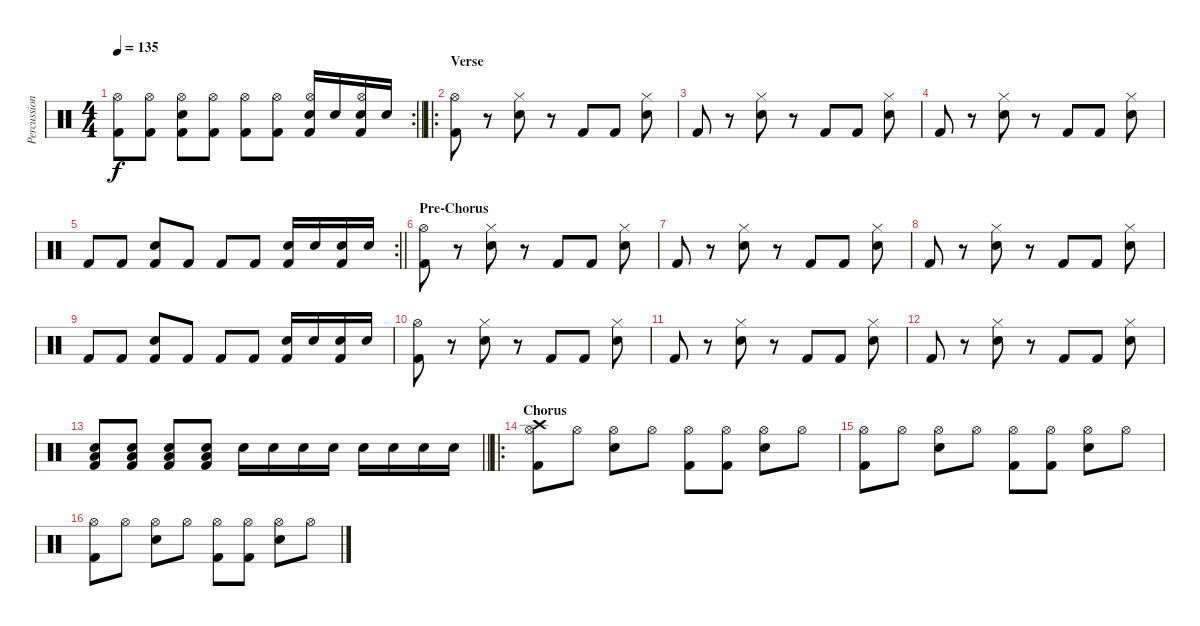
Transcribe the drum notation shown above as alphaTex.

\track ("Percussion" "Percussion") {instrument percussion}
\staff {score}
\articulation defaults
\rc 2
\ts (4 4)
\tempo 135
\clef neutral
\barLineRight lightlight
\ks c
("Kick (hit) 2" "Hi-Hat (open)").8{dy f} ("Kick (hit) 2" "Hi-Hat (open)").8 ("Kick (hit) 2" "Electric Snare (hit)" "Hi-Hat (open)").8 ("Kick (hit) 2" "Hi-Hat (open)").8 ("Kick (hit) 2" "Hi-Hat (open)").8 ("Kick (hit) 2" "Hi-Hat (open)").8 ("Kick (hit) 2" "Electric Snare (hit)" "Hi-Hat (open)").16 "Electric Snare (hit)".16 ("Kick (hit) 2" "Electric Snare (hit)" "Hi-Hat (open)").16 "Electric Snare (hit)".16 |
\ro
\section ("" "Verse")
("Hi-Hat (open)" "Kick (hit) 2").8 r.8 ("Electric Snare (hit)" "Hi-Hat (closed)").8 r.8 "Kick (hit) 2".8 "Kick (hit) 2".8 ("Electric Snare (hit)" "Hi-Hat (closed)").8 |
"Kick (hit) 2".8 r.8 ("Electric Snare (hit)" "Hi-Hat (closed)").8 r.8 "Kick (hit) 2".8 "Kick (hit) 2".8 ("Electric Snare (hit)" "Hi-Hat (closed)").8 |
"Kick (hit) 2".8 r.8 ("Electric Snare (hit)" "Hi-Hat (closed)").8 r.8 "Kick (hit) 2".8 "Kick (hit) 2".8 ("Electric Snare (hit)" "Hi-Hat (closed)").8 |
\rc 2
\barLineRight lightlight "Kick (hit) 2".8 "Kick (hit) 2".8
("Kick (hit) 2" "Electric Snare (hit)").8 "Kick (hit) 2".8 "Kick (hit) 2".8 "Kick (hit) 2".8 ("Kick (hit) 2" "Electric Snare (hit)").16 "Electric Snare (hit)".16 ("Kick (hit) 2" "Electric Snare (hit)").16 "Electric Snare (hit)".16 |
\section ("" "Pre-Chorus")
("Hi-Hat (open)" "Kick (hit) 2").8 r.8 ("Electric Snare (hit)" "Hi-Hat (closed)").8 r.8 "Kick (hit) 2".8 "Kick (hit) 2".8 ("Electric Snare (hit)" "Hi-Hat (closed)").8 |
"Kick (hit) 2".8 r.8 ("Electric Snare (hit)" "Hi-Hat (closed)").8 r.8 "Kick (hit) 2".8 "Kick (hit) 2".8 ("Electric Snare (hit)" "Hi-Hat (closed)").8 |
"Kick (hit) 2".8 r.8 ("Electric Snare (hit)" "Hi-Hat (closed)").8 r.8 "Kick (hit) 2".8 "Kick (hit) 2".8 ("Electric Snare (hit)" "Hi-Hat (closed)").8 |
"Kick (hit) 2".8 "Kick (hit) 2".8 ("Kick (hit) 2" "Electric Snare (hit)").8 "Kick (hit) 2".8 "Kick (hit) 2".8 "Kick (hit) 2".8 ("Kick (hit) 2" "Electric Snare (hit)").16 "Electric Snare (hit)".16 ("Kick (hit) 2" "Electric Snare (hit)").16 "Electric Snare (hit)".16 |
("Hi-Hat (open)" "Kick (hit) 2").8 r.8 ("Electric Snare (hit)" "Hi-Hat (closed)").8 r.8 "Kick (hit) 2".8 "Kick (hit) 2".8 ("Electric Snare (hit)" "Hi-Hat (closed)").8 |
"Kick (hit) 2".8 r.8 ("Electric Snare (hit)" "Hi-Hat (closed)").8 r.8 "Kick (hit) 2".8 "Kick (hit) 2".8 ("Electric Snare (hit)" "Hi-Hat (closed)").8 |
"Kick (hit) 2".8 r.8 ("Electric Snare (hit)" "Hi-Hat (closed)").8 r.8 "Kick (hit) 2".8 "Kick (hit) 2".8 ("Electric Snare (hit)" "Hi-Hat (closed)").8 |
\barLineRight lightlight
("Low Floor Tom (hit)" "Electric Snare (hit)" "Kick (hit) 2").8 ("Low Floor Tom (hit)" "Electric Snare (hit)" "Kick (hit) 2").8 ("Low Floor Tom (hit)" "Electric Snare (hit)" "Kick (hit) 2").8 ("Low Floor Tom (hit)" "Electric Snare (hit)" "Kick (hit) 2").8 "Electric Snare (hit)".16 "Electric Snare (hit)".16 "Electric Snare (hit)".16 "Electric Snare (hit)".16 "Electric Snare (hit)".16 "Electric Snare (hit)".16 "Electric Snare (hit)".16 "Electric Snare (hit)".16 |
\ro
\section ("" "Chorus")
("Crash high (hit)" "Hi-Hat (open)" "Kick (hit) 2").8 "Hi-Hat (open)".8 ("Hi-Hat (open)" "Electric Snare (hit)").8 "Hi-Hat (open)".8 ("Hi-Hat (open)" "Kick (hit) 2").8 ("Hi-Hat (open)" "Kick (hit) 2").8 ("Hi-Hat (open)" "Electric Snare (hit)").8 "Hi-Hat (open)".8 |
("Hi-Hat (open)" "Kick (hit) 2").8 "Hi-Hat (open)".8 ("Hi-Hat (open)" "Electric Snare (hit)").8 "Hi-Hat (open)".8 ("Hi-Hat (open)" "Kick (hit) 2").8 ("Hi-Hat (open)" "Kick (hit) 2").8 ("Hi-Hat (open)" "Electric Snare (hit)").8 "Hi-Hat (open)".8 |
("Hi-Hat (open)" "Kick (hit) 2").8 "Hi-Hat (open)".8 ("Hi-Hat (open)" "Electric Snare (hit)").8 "Hi-Hat (open)".8 ("Hi-Hat (open)" "Kick (hit) 2").8 ("Hi-Hat (open)" "Kick (hit) 2").8 ("Hi-Hat (open)" "Electric Snare (hit)").8 "Hi-Hat (open)".8
